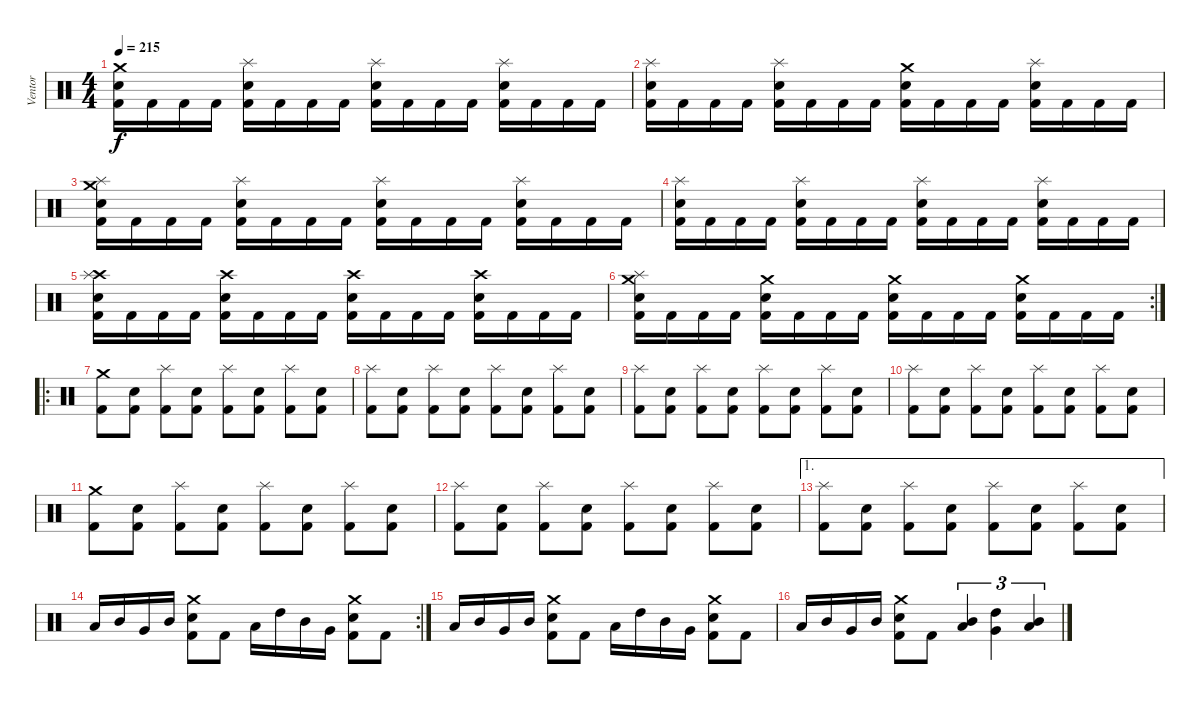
\track ("Ventor" "Ventor") {instrument percussion}
\staff {score}
\articulation defaults
\ts (4 4)
\tempo 215
\clef neutral
\ks c
("Crash medium (hit)" "Electric Snare (hit)" "Kick (hit) 2").16{dy f} "Kick (hit) 2".16 "Kick (hit) 2".16 "Kick (hit) 2".16 ("Splash (hit)" "Electric Snare (hit)" "Kick (hit) 2").16 "Kick (hit) 2".16 "Kick (hit) 2".16 "Kick (hit) 2".16 ("Splash (hit)" "Electric Snare (hit)" "Kick (hit) 2").16 "Kick (hit) 2".16 "Kick (hit) 2".16 "Kick (hit) 2".16 ("Splash (hit)" "Electric Snare (hit)" "Kick (hit) 2").16 "Kick (hit) 2".16 "Kick (hit) 2".16 "Kick (hit) 2".16 |
("Splash (hit)" "Electric Snare (hit)" "Kick (hit) 2").16 "Kick (hit) 2".16 "Kick (hit) 2".16 "Kick (hit) 2".16 ("Splash (hit)" "Electric Snare (hit)" "Kick (hit) 2").16 "Kick (hit) 2".16 "Kick (hit) 2".16 "Kick (hit) 2".16 ("Crash medium (hit)" "Electric Snare (hit)" "Kick (hit) 2").16 "Kick (hit) 2".16 "Kick (hit) 2".16 "Kick (hit) 2".16 ("Splash (hit)" "Electric Snare (hit)" "Kick (hit) 2").16 "Kick (hit) 2".16 "Kick (hit) 2".16 "Kick (hit) 2".16 |
("Crash medium (hit)" "Splash (hit)" "Electric Snare (hit)" "Kick (hit) 2").16 "Kick (hit) 2".16 "Kick (hit) 2".16 "Kick (hit) 2".16 ("Splash (hit)" "Electric Snare (hit)" "Kick (hit) 2").16 "Kick (hit) 2".16 "Kick (hit) 2".16 "Kick (hit) 2".16 ("Splash (hit)" "Electric Snare (hit)" "Kick (hit) 2").16 "Kick (hit) 2".16 "Kick (hit) 2".16 "Kick (hit) 2".16 ("Splash (hit)" "Electric Snare (hit)" "Kick (hit) 2").16 "Kick (hit) 2".16 "Kick (hit) 2".16 "Kick (hit) 2".16 |
("Splash (hit)" "Electric Snare (hit)" "Kick (hit) 2").16 "Kick (hit) 2".16 "Kick (hit) 2".16 "Kick (hit) 2".16 ("Splash (hit)" "Electric Snare (hit)" "Kick (hit) 2").16 "Kick (hit) 2".16 "Kick (hit) 2".16 "Kick (hit) 2".16 ("Splash (hit)" "Electric Snare (hit)" "Kick (hit) 2").16 "Kick (hit) 2".16 "Kick (hit) 2".16 "Kick (hit) 2".16 ("Splash (hit)" "Electric Snare (hit)" "Kick (hit) 2").16 "Kick (hit) 2".16 "Kick (hit) 2".16 "Kick (hit) 2".16 |
("Crash high (hit)" "Splash (hit)" "Electric Snare (hit)" "Kick (hit) 2").16 "Kick (hit) 2".16 "Kick (hit) 2".16 "Kick (hit) 2".16 ("Crash high (hit)" "Electric Snare (hit)" "Kick (hit) 2").16 "Kick (hit) 2".16 "Kick (hit) 2".16 "Kick (hit) 2".16 ("Crash high (hit)" "Electric Snare (hit)" "Kick (hit) 2").16 "Kick (hit) 2".16 "Kick (hit) 2".16 "Kick (hit) 2".16 ("Crash high (hit)" "Electric Snare (hit)" "Kick (hit) 2").16 "Kick (hit) 2".16 "Kick (hit) 2".16 "Kick (hit) 2".16 |
\rc 2
("Crash medium (hit)" "Splash (hit)" "Electric Snare (hit)" "Kick (hit) 2").16 "Kick (hit) 2".16 "Kick (hit) 2".16 "Kick (hit) 2".16 ("Crash medium (hit)" "Electric Snare (hit)" "Kick (hit) 2").16 "Kick (hit) 2".16 "Kick (hit) 2".16 "Kick (hit) 2".16 ("Crash medium (hit)" "Electric Snare (hit)" "Kick (hit) 2").16 "Kick (hit) 2".16 "Kick (hit) 2".16 "Kick (hit) 2".16 ("Crash medium (hit)" "Electric Snare (hit)" "Kick (hit) 2").16 "Kick (hit) 2".16 "Kick (hit) 2".16 "Kick (hit) 2".16 |
\ro
("Crash medium (hit)" "Kick (hit) 2").8 ("Electric Snare (hit)" "Kick (hit) 2").8 ("Splash (hit)" "Kick (hit) 2").8 ("Electric Snare (hit)" "Kick (hit) 2").8 ("Splash (hit)" "Kick (hit) 2").8 ("Electric Snare (hit)" "Kick (hit) 2").8 ("Splash (hit)" "Kick (hit) 2").8 ("Electric Snare (hit)" "Kick (hit) 2").8 |
("Splash (hit)" "Kick (hit) 2").8 ("Electric Snare (hit)" "Kick (hit) 2").8 ("Splash (hit)" "Kick (hit) 2").8 ("Electric Snare (hit)" "Kick (hit) 2").8 ("Splash (hit)" "Kick (hit) 2").8 ("Electric Snare (hit)" "Kick (hit) 2").8 ("Splash (hit)" "Kick (hit) 2").8 ("Electric Snare (hit)" "Kick (hit) 2").8 |
("Splash (hit)" "Kick (hit) 2").8 ("Electric Snare (hit)" "Kick (hit) 2").8 ("Splash (hit)" "Kick (hit) 2").8 ("Electric Snare (hit)" "Kick (hit) 2").8 ("Splash (hit)" "Kick (hit) 2").8 ("Electric Snare (hit)" "Kick (hit) 2").8 ("Splash (hit)" "Kick (hit) 2").8 ("Electric Snare (hit)" "Kick (hit) 2").8 |
("Splash (hit)" "Kick (hit) 2").8 ("Electric Snare (hit)" "Kick (hit) 2").8 ("Splash (hit)" "Kick (hit) 2").8 ("Electric Snare (hit)" "Kick (hit) 2").8 ("Splash (hit)" "Kick (hit) 2").8 ("Electric Snare (hit)" "Kick (hit) 2").8 ("Splash (hit)" "Kick (hit) 2").8 ("Electric Snare (hit)" "Kick (hit) 2").8 |
("Crash medium (hit)" "Kick (hit) 2").8 ("Electric Snare (hit)" "Kick (hit) 2").8 ("Splash (hit)" "Kick (hit) 2").8 ("Electric Snare (hit)" "Kick (hit) 2").8 ("Splash (hit)" "Kick (hit) 2").8 ("Electric Snare (hit)" "Kick (hit) 2").8 ("Splash (hit)" "Kick (hit) 2").8 ("Electric Snare (hit)" "Kick (hit) 2").8 |
("Splash (hit)" "Kick (hit) 2").8 ("Electric Snare (hit)" "Kick (hit) 2").8 ("Splash (hit)" "Kick (hit) 2").8 ("Electric Snare (hit)" "Kick (hit) 2").8 ("Splash (hit)" "Kick (hit) 2").8 ("Electric Snare (hit)" "Kick (hit) 2").8 ("Splash (hit)" "Kick (hit) 2").8 ("Electric Snare (hit)" "Kick (hit) 2").8 |
\ae 1
("Splash (hit)" "Kick (hit) 2").8 ("Electric Snare (hit)" "Kick (hit) 2").8 ("Splash (hit)" "Kick (hit) 2").8 ("Electric Snare (hit)" "Kick (hit) 2").8 ("Splash (hit)" "Kick (hit) 2").8 ("Electric Snare (hit)" "Kick (hit) 2").8 ("Splash (hit)" "Kick (hit) 2").8 ("Electric Snare (hit)" "Kick (hit) 2").8 |
\rc 2 "Low Tom (hit)".16 "Mid Tom (hit)".16 "Very Low Tom (hit)".16 "Mid Tom (hit)".16
("Crash medium (hit)" "Electric Snare (hit)" "Kick (hit) 2").8 "Kick (hit) 2".8 "Low Tom (hit)".16 "High Tom (hit)".16 "Mid Tom (hit)".16 "Very Low Tom (hit)".16 ("Crash medium (hit)" "Electric Snare (hit)" "Kick (hit) 2").8 "Kick (hit) 2".8 |
"Low Tom (hit)".16 "Mid Tom (hit)".16 "Very Low Tom (hit)".16 "Mid Tom (hit)".16 ("Crash medium (hit)" "Electric Snare (hit)" "Kick (hit) 2").8 "Kick (hit) 2".8 "Low Tom (hit)".16 "High Tom (hit)".16 "Mid Tom (hit)".16 "Very Low Tom (hit)".16 ("Crash medium (hit)" "Electric Snare (hit)" "Kick (hit) 2").8 "Kick (hit) 2".8 |
"Low Tom (hit)".16 "Mid Tom (hit)".16 "Very Low Tom (hit)".16 "Mid Tom (hit)".16 ("Crash medium (hit)" "Electric Snare (hit)" "Kick (hit) 2").8 "Kick (hit) 2".8 ("Mid Tom (hit)" "Low Tom (hit)").4{tu (3 2)} ("High Tom (hit)" "Very Low Tom (hit)").4{tu (3 2)} ("Mid Tom (hit)" "Low Tom (hit)").4{tu (3 2)}
